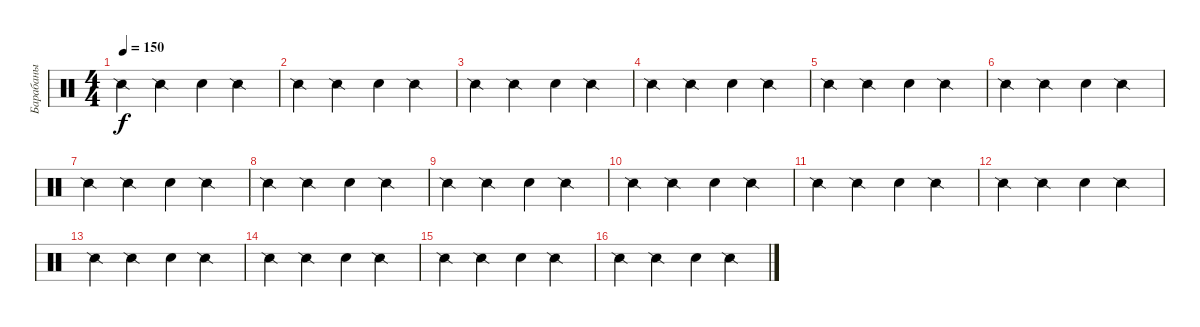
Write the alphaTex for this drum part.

\track ("Барабаны" "Барабаны") {instrument percussion}
\staff {score}
\articulation defaults
\ts (4 4)
\tempo 150
\clef neutral
\ks c "Snare (side stick) 2".4{dy f} "Snare (side stick) 2".4 "Snare (hit) 2".4 "Snare (side stick) 2".4
|
"Snare (side stick) 2".4 "Snare (side stick) 2".4 "Snare (hit) 2".4 "Snare (side stick) 2".4 |
"Snare (side stick) 2".4 "Snare (side stick) 2".4 "Snare (hit) 2".4 "Snare (side stick) 2".4 |
"Snare (side stick) 2".4 "Snare (side stick) 2".4 "Snare (hit) 2".4 "Snare (side stick) 2".4 |
"Snare (side stick) 2".4 "Snare (side stick) 2".4 "Snare (hit) 2".4 "Snare (side stick) 2".4 |
"Snare (side stick) 2".4 "Snare (side stick) 2".4 "Snare (hit) 2".4 "Snare (side stick) 2".4 |
"Snare (side stick) 2".4 "Snare (side stick) 2".4 "Snare (hit) 2".4 "Snare (side stick) 2".4 |
"Snare (side stick) 2".4 "Snare (side stick) 2".4 "Snare (hit) 2".4 "Snare (side stick) 2".4 |
"Snare (side stick) 2".4 "Snare (side stick) 2".4 "Snare (hit) 2".4 "Snare (side stick) 2".4 |
"Snare (side stick) 2".4 "Snare (side stick) 2".4 "Snare (hit) 2".4 "Snare (side stick) 2".4 |
"Snare (side stick) 2".4 "Snare (side stick) 2".4 "Snare (hit) 2".4 "Snare (side stick) 2".4 |
"Snare (side stick) 2".4 "Snare (side stick) 2".4 "Snare (hit) 2".4 "Snare (side stick) 2".4 |
"Snare (side stick) 2".4 "Snare (side stick) 2".4 "Snare (hit) 2".4 "Snare (side stick) 2".4 |
"Snare (side stick) 2".4 "Snare (side stick) 2".4 "Snare (hit) 2".4 "Snare (side stick) 2".4 |
"Snare (side stick) 2".4 "Snare (side stick) 2".4 "Snare (hit) 2".4 "Snare (side stick) 2".4 |
"Snare (side stick) 2".4 "Snare (side stick) 2".4 "Snare (hit) 2".4 "Snare (side stick) 2".4
